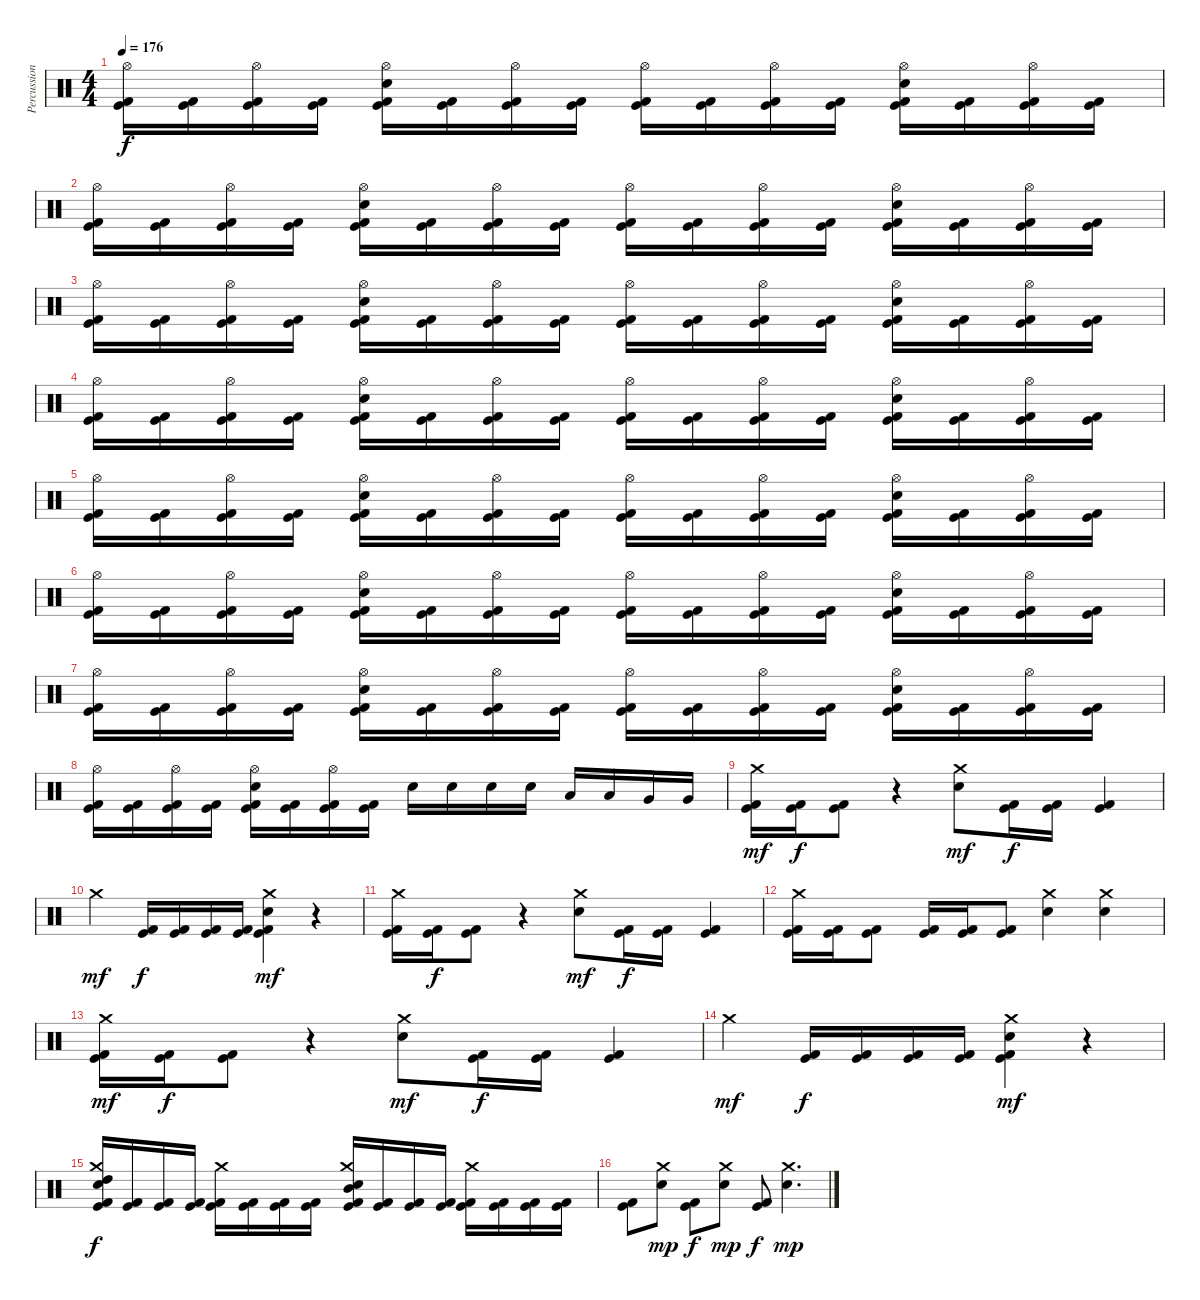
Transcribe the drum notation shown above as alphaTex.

\track ("Percussions" "Percussion") {instrument percussion}
\staff {score}
\articulation defaults
\ts (4 4)
\tempo 176
\clef neutral
\ks c
("Hi-Hat (open)" "Kick (hit)" "Kick (hit) 2").16{dy f} ("Kick (hit)" "Kick (hit) 2").16 ("Hi-Hat (open)" "Kick (hit)" "Kick (hit) 2").16 ("Kick (hit)" "Kick (hit) 2").16 ("Hi-Hat (open)" "Electric Snare (hit)" "Kick (hit)" "Kick (hit) 2").16 ("Kick (hit)" "Kick (hit) 2").16 ("Hi-Hat (open)" "Kick (hit)" "Kick (hit) 2").16 ("Kick (hit)" "Kick (hit) 2").16 ("Hi-Hat (open)" "Kick (hit)" "Kick (hit) 2").16 ("Kick (hit)" "Kick (hit) 2").16 ("Hi-Hat (open)" "Kick (hit)" "Kick (hit) 2").16 ("Kick (hit)" "Kick (hit) 2").16 ("Hi-Hat (open)" "Electric Snare (hit)" "Kick (hit)" "Kick (hit) 2").16 ("Kick (hit)" "Kick (hit) 2").16 ("Hi-Hat (open)" "Kick (hit)" "Kick (hit) 2").16 ("Kick (hit)" "Kick (hit) 2").16 |
("Hi-Hat (open)" "Kick (hit)" "Kick (hit) 2").16 ("Kick (hit)" "Kick (hit) 2").16 ("Hi-Hat (open)" "Kick (hit)" "Kick (hit) 2").16 ("Kick (hit)" "Kick (hit) 2").16 ("Hi-Hat (open)" "Electric Snare (hit)" "Kick (hit)" "Kick (hit) 2").16 ("Kick (hit)" "Kick (hit) 2").16 ("Hi-Hat (open)" "Kick (hit)" "Kick (hit) 2").16 ("Kick (hit)" "Kick (hit) 2").16 ("Hi-Hat (open)" "Kick (hit)" "Kick (hit) 2").16 ("Kick (hit)" "Kick (hit) 2").16 ("Hi-Hat (open)" "Kick (hit)" "Kick (hit) 2").16 ("Kick (hit)" "Kick (hit) 2").16 ("Hi-Hat (open)" "Electric Snare (hit)" "Kick (hit)" "Kick (hit) 2").16 ("Kick (hit)" "Kick (hit) 2").16 ("Hi-Hat (open)" "Kick (hit)" "Kick (hit) 2").16 ("Kick (hit)" "Kick (hit) 2").16 |
("Hi-Hat (open)" "Kick (hit)" "Kick (hit) 2").16 ("Kick (hit)" "Kick (hit) 2").16 ("Hi-Hat (open)" "Kick (hit)" "Kick (hit) 2").16 ("Kick (hit)" "Kick (hit) 2").16 ("Hi-Hat (open)" "Electric Snare (hit)" "Kick (hit)" "Kick (hit) 2").16 ("Kick (hit)" "Kick (hit) 2").16 ("Hi-Hat (open)" "Kick (hit)" "Kick (hit) 2").16 ("Kick (hit)" "Kick (hit) 2").16 ("Hi-Hat (open)" "Kick (hit)" "Kick (hit) 2").16 ("Kick (hit)" "Kick (hit) 2").16 ("Hi-Hat (open)" "Kick (hit)" "Kick (hit) 2").16 ("Kick (hit)" "Kick (hit) 2").16 ("Hi-Hat (open)" "Electric Snare (hit)" "Kick (hit)" "Kick (hit) 2").16 ("Kick (hit)" "Kick (hit) 2").16 ("Hi-Hat (open)" "Kick (hit)" "Kick (hit) 2").16 ("Kick (hit)" "Kick (hit) 2").16 |
("Hi-Hat (open)" "Kick (hit)" "Kick (hit) 2").16 ("Kick (hit)" "Kick (hit) 2").16 ("Hi-Hat (open)" "Kick (hit)" "Kick (hit) 2").16 ("Kick (hit)" "Kick (hit) 2").16 ("Hi-Hat (open)" "Electric Snare (hit)" "Kick (hit)" "Kick (hit) 2").16 ("Kick (hit)" "Kick (hit) 2").16 ("Hi-Hat (open)" "Kick (hit)" "Kick (hit) 2").16 ("Kick (hit)" "Kick (hit) 2").16 ("Hi-Hat (open)" "Kick (hit)" "Kick (hit) 2").16 ("Kick (hit)" "Kick (hit) 2").16 ("Hi-Hat (open)" "Kick (hit)" "Kick (hit) 2").16 ("Kick (hit)" "Kick (hit) 2").16 ("Hi-Hat (open)" "Electric Snare (hit)" "Kick (hit)" "Kick (hit) 2").16 ("Kick (hit)" "Kick (hit) 2").16 ("Hi-Hat (open)" "Kick (hit)" "Kick (hit) 2").16 ("Kick (hit)" "Kick (hit) 2").16 |
("Hi-Hat (open)" "Kick (hit)" "Kick (hit) 2").16 ("Kick (hit)" "Kick (hit) 2").16 ("Hi-Hat (open)" "Kick (hit)" "Kick (hit) 2").16 ("Kick (hit)" "Kick (hit) 2").16 ("Hi-Hat (open)" "Electric Snare (hit)" "Kick (hit)" "Kick (hit) 2").16 ("Kick (hit)" "Kick (hit) 2").16 ("Hi-Hat (open)" "Kick (hit)" "Kick (hit) 2").16 ("Kick (hit)" "Kick (hit) 2").16 ("Hi-Hat (open)" "Kick (hit)" "Kick (hit) 2").16 ("Kick (hit)" "Kick (hit) 2").16 ("Hi-Hat (open)" "Kick (hit)" "Kick (hit) 2").16 ("Kick (hit)" "Kick (hit) 2").16 ("Hi-Hat (open)" "Electric Snare (hit)" "Kick (hit)" "Kick (hit) 2").16 ("Kick (hit)" "Kick (hit) 2").16 ("Hi-Hat (open)" "Kick (hit)" "Kick (hit) 2").16 ("Kick (hit)" "Kick (hit) 2").16 |
("Hi-Hat (open)" "Kick (hit)" "Kick (hit) 2").16 ("Kick (hit)" "Kick (hit) 2").16 ("Hi-Hat (open)" "Kick (hit)" "Kick (hit) 2").16 ("Kick (hit)" "Kick (hit) 2").16 ("Hi-Hat (open)" "Electric Snare (hit)" "Kick (hit)" "Kick (hit) 2").16 ("Kick (hit)" "Kick (hit) 2").16 ("Hi-Hat (open)" "Kick (hit)" "Kick (hit) 2").16 ("Kick (hit)" "Kick (hit) 2").16 ("Hi-Hat (open)" "Kick (hit)" "Kick (hit) 2").16 ("Kick (hit)" "Kick (hit) 2").16 ("Hi-Hat (open)" "Kick (hit)" "Kick (hit) 2").16 ("Kick (hit)" "Kick (hit) 2").16 ("Hi-Hat (open)" "Electric Snare (hit)" "Kick (hit)" "Kick (hit) 2").16 ("Kick (hit)" "Kick (hit) 2").16 ("Hi-Hat (open)" "Kick (hit)" "Kick (hit) 2").16 ("Kick (hit)" "Kick (hit) 2").16 |
("Hi-Hat (open)" "Kick (hit)" "Kick (hit) 2").16 ("Kick (hit)" "Kick (hit) 2").16 ("Hi-Hat (open)" "Kick (hit)" "Kick (hit) 2").16 ("Kick (hit)" "Kick (hit) 2").16 ("Hi-Hat (open)" "Electric Snare (hit)" "Kick (hit)" "Kick (hit) 2").16 ("Kick (hit)" "Kick (hit) 2").16 ("Hi-Hat (open)" "Kick (hit)" "Kick (hit) 2").16 ("Kick (hit)" "Kick (hit) 2").16 ("Hi-Hat (open)" "Kick (hit)" "Kick (hit) 2").16 ("Kick (hit)" "Kick (hit) 2").16 ("Hi-Hat (open)" "Kick (hit)" "Kick (hit) 2").16 ("Kick (hit)" "Kick (hit) 2").16 ("Hi-Hat (open)" "Electric Snare (hit)" "Kick (hit)" "Kick (hit) 2").16 ("Kick (hit)" "Kick (hit) 2").16 ("Hi-Hat (open)" "Kick (hit)" "Kick (hit) 2").16 ("Kick (hit)" "Kick (hit) 2").16 |
("Hi-Hat (open)" "Kick (hit)" "Kick (hit) 2").16 ("Kick (hit)" "Kick (hit) 2").16 ("Hi-Hat (open)" "Kick (hit)" "Kick (hit) 2").16 ("Kick (hit)" "Kick (hit) 2").16 ("Hi-Hat (open)" "Electric Snare (hit)" "Kick (hit)" "Kick (hit) 2").16 ("Kick (hit)" "Kick (hit) 2").16 ("Hi-Hat (open)" "Kick (hit)" "Kick (hit) 2").16 ("Kick (hit)" "Kick (hit) 2").16 "Electric Snare (hit)".16 "Electric Snare (hit)".16 "Electric Snare (hit)".16 "Electric Snare (hit)".16 "Low Tom (hit)".16 "Low Tom (hit)".16 "Very Low Tom (hit)".16 "Very Low Tom (hit)".16 |
("Crash medium (hit)" "Kick (hit)" "Kick (hit) 2").16{dy mf} ("Kick (hit)" "Kick (hit) 2").16{dy f} ("Kick (hit)" "Kick (hit) 2").8 r.4 ("Crash medium (hit)" "Electric Snare (hit)").8{dy mf} ("Kick (hit)" "Kick (hit) 2").16{dy f} ("Kick (hit)" "Kick (hit) 2").16 ("Kick (hit)" "Kick (hit) 2").4 |
"Crash medium (hit)".4{dy mf} ("Kick (hit)" "Kick (hit) 2").16{dy f} ("Kick (hit)" "Kick (hit) 2").16 ("Kick (hit)" "Kick (hit) 2").16 ("Kick (hit)" "Kick (hit) 2").16 ("Crash medium (hit)" "Electric Snare (hit)" "Kick (hit)" "Kick (hit) 2").4{dy mf} r.4 |
("Crash medium (hit)" "Kick (hit)" "Kick (hit) 2").16 ("Kick (hit)" "Kick (hit) 2").16{dy f} ("Kick (hit)" "Kick (hit) 2").8 r.4 ("Crash medium (hit)" "Electric Snare (hit)").8{dy mf} ("Kick (hit)" "Kick (hit) 2").16{dy f} ("Kick (hit)" "Kick (hit) 2").16 ("Kick (hit)" "Kick (hit) 2").4 |
("Crash medium (hit)" "Kick (hit)" "Kick (hit) 2").16 ("Kick (hit)" "Kick (hit) 2").16 ("Kick (hit)" "Kick (hit) 2").8 ("Kick (hit)" "Kick (hit) 2").16 ("Kick (hit)" "Kick (hit) 2").16 ("Kick (hit)" "Kick (hit) 2").8 ("Crash medium (hit)" "Electric Snare (hit)").4 ("Crash medium (hit)" "Electric Snare (hit)").4 |
("Crash medium (hit)" "Kick (hit)" "Kick (hit) 2").16{dy mf} ("Kick (hit)" "Kick (hit) 2").16{dy f} ("Kick (hit)" "Kick (hit) 2").8 r.4 ("Crash medium (hit)" "Electric Snare (hit)").8{dy mf} ("Kick (hit)" "Kick (hit) 2").16{dy f} ("Kick (hit)" "Kick (hit) 2").16 ("Kick (hit)" "Kick (hit) 2").4 |
"Crash medium (hit)".4{dy mf} ("Kick (hit)" "Kick (hit) 2").16{dy f} ("Kick (hit)" "Kick (hit) 2").16 ("Kick (hit)" "Kick (hit) 2").16 ("Kick (hit)" "Kick (hit) 2").16 ("Crash medium (hit)" "Electric Snare (hit)" "Kick (hit)" "Kick (hit) 2").4{dy mf} r.4 |
("Crash medium (hit)" "Electric Snare (hit)" "High Tom (hit)" "Kick (hit)" "Kick (hit) 2").16{dy f} ("Kick (hit)" "Kick (hit) 2").16 ("Kick (hit)" "Kick (hit) 2").16 ("Kick (hit)" "Kick (hit) 2").16 ("Crash medium (hit)" "Kick (hit)" "Kick (hit) 2").16 ("Kick (hit)" "Kick (hit) 2").16 ("Kick (hit)" "Kick (hit) 2").16 ("Kick (hit)" "Kick (hit) 2").16 ("Crash medium (hit)" "Electric Snare (hit)" "Mid Tom (hit)" "Kick (hit)" "Kick (hit) 2").16 ("Kick (hit)" "Kick (hit) 2").16 ("Kick (hit)" "Kick (hit) 2").16 ("Kick (hit)" "Kick (hit) 2").16 ("Crash medium (hit)" "Kick (hit)" "Kick (hit) 2").16 ("Kick (hit)" "Kick (hit) 2").16 ("Kick (hit)" "Kick (hit) 2").16 ("Kick (hit)" "Kick (hit) 2").16 |
("Kick (hit)" "Kick (hit) 2").8 ("Crash medium (hit)" "Electric Snare (hit)").8{dy mp} ("Kick (hit)" "Kick (hit) 2").8{dy f} ("Crash medium (hit)" "Electric Snare (hit)").8{dy mp} ("Kick (hit)" "Kick (hit) 2").8{dy f} ("Crash medium (hit)" "Electric Snare (hit)").4{d dy mp}
